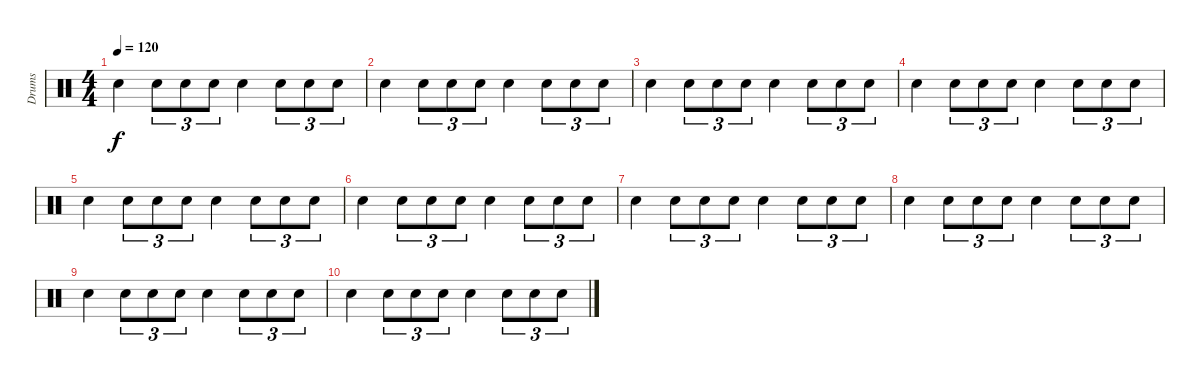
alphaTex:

\track ("Drums" "Drums") {instrument percussion}
\staff {score}
\articulation defaults
\ts (4 4)
\tempo 120
\clef neutral
\ks c "Electric Snare (hit)".4{dy f} "Electric Snare (hit)".8{tu (3 2)} "Electric Snare (hit)".8{tu (3 2)} "Electric Snare (hit)".8{tu (3 2)} "Electric Snare (hit)".4 "Electric Snare (hit)".8{tu (3 2)} "Electric Snare (hit)".8{tu (3 2)} "Electric Snare (hit)".8{tu (3 2)}
|
"Electric Snare (hit)".4 "Electric Snare (hit)".8{tu (3 2)} "Electric Snare (hit)".8{tu (3 2)} "Electric Snare (hit)".8{tu (3 2)} "Electric Snare (hit)".4 "Electric Snare (hit)".8{tu (3 2)} "Electric Snare (hit)".8{tu (3 2)} "Electric Snare (hit)".8{tu (3 2)} |
"Electric Snare (hit)".4 "Electric Snare (hit)".8{tu (3 2)} "Electric Snare (hit)".8{tu (3 2)} "Electric Snare (hit)".8{tu (3 2)} "Electric Snare (hit)".4 "Electric Snare (hit)".8{tu (3 2)} "Electric Snare (hit)".8{tu (3 2)} "Electric Snare (hit)".8{tu (3 2)} |
"Electric Snare (hit)".4{volume 7} "Electric Snare (hit)".8{tu (3 2)} "Electric Snare (hit)".8{tu (3 2)} "Electric Snare (hit)".8{tu (3 2)} "Electric Snare (hit)".4 "Electric Snare (hit)".8{tu (3 2)} "Electric Snare (hit)".8{tu (3 2)} "Electric Snare (hit)".8{tu (3 2)} |
"Electric Snare (hit)".4 "Electric Snare (hit)".8{tu (3 2)} "Electric Snare (hit)".8{tu (3 2)} "Electric Snare (hit)".8{tu (3 2)} "Electric Snare (hit)".4 "Electric Snare (hit)".8{tu (3 2)} "Electric Snare (hit)".8{tu (3 2)} "Electric Snare (hit)".8{tu (3 2)} |
"Electric Snare (hit)".4 "Electric Snare (hit)".8{tu (3 2)} "Electric Snare (hit)".8{tu (3 2)} "Electric Snare (hit)".8{tu (3 2)} "Electric Snare (hit)".4 "Electric Snare (hit)".8{tu (3 2)} "Electric Snare (hit)".8{tu (3 2)} "Electric Snare (hit)".8{tu (3 2)} |
"Electric Snare (hit)".4 "Electric Snare (hit)".8{tu (3 2)} "Electric Snare (hit)".8{tu (3 2)} "Electric Snare (hit)".8{tu (3 2)} "Electric Snare (hit)".4 "Electric Snare (hit)".8{tu (3 2)} "Electric Snare (hit)".8{tu (3 2)} "Electric Snare (hit)".8{tu (3 2)} |
"Electric Snare (hit)".4{volume 0} "Electric Snare (hit)".8{tu (3 2)} "Electric Snare (hit)".8{tu (3 2)} "Electric Snare (hit)".8{tu (3 2)} "Electric Snare (hit)".4 "Electric Snare (hit)".8{tu (3 2)} "Electric Snare (hit)".8{tu (3 2)} "Electric Snare (hit)".8{tu (3 2)} |
"Electric Snare (hit)".4 "Electric Snare (hit)".8{tu (3 2)} "Electric Snare (hit)".8{tu (3 2)} "Electric Snare (hit)".8{tu (3 2)} "Electric Snare (hit)".4 "Electric Snare (hit)".8{tu (3 2)} "Electric Snare (hit)".8{tu (3 2)} "Electric Snare (hit)".8{tu (3 2)} |
"Electric Snare (hit)".4 "Electric Snare (hit)".8{tu (3 2)} "Electric Snare (hit)".8{tu (3 2)} "Electric Snare (hit)".8{tu (3 2)} "Electric Snare (hit)".4 "Electric Snare (hit)".8{tu (3 2)} "Electric Snare (hit)".8{tu (3 2)} "Electric Snare (hit)".8{tu (3 2)}
